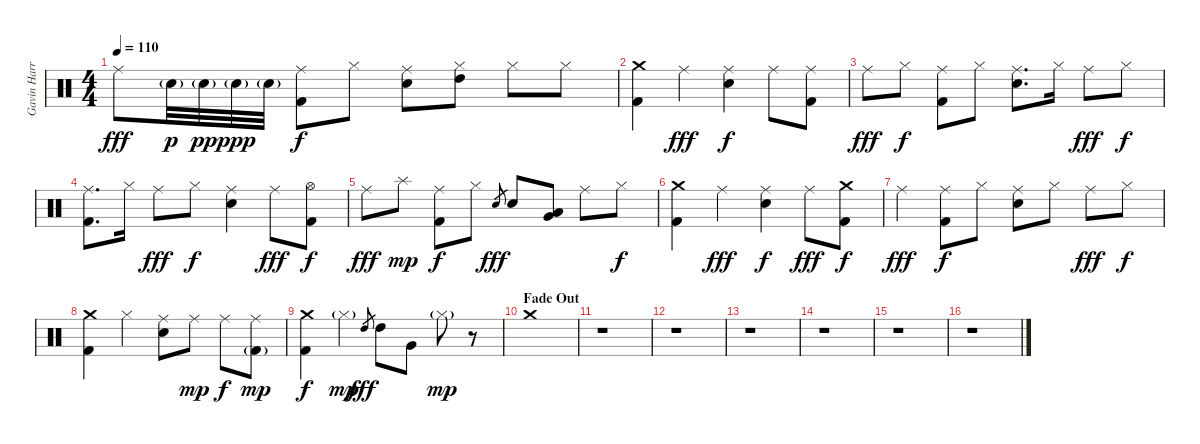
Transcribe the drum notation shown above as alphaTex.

\track ("Gavin Harrison - Drums" "Gavin Harr") {instrument percussion}
\staff {score}
\articulation defaults
\ts (4 4)
\tempo 110
\clef neutral
\ks c "Ride (middle)".8{dy fff} "Electric Snare (hit)"{g}.32{dy p} "Electric Snare (hit)"{g}.32{dy pp} "Electric Snare (hit)"{g}.32{dy ppp} "Electric Snare (hit)"{g}.32
("Ride (middle)" "Kick (hit) 2").8{dy f} "Hi-Hat (closed)".8 ("Ride (middle)" "Electric Snare (hit)").8 ("Hi-Hat (closed)" "High Tom (hit)").8 "Hi-Hat (closed)".8 "Hi-Hat (closed)".8 |
("Crash medium (hit)" "Kick (hit) 2").4 "Ride (middle)".4{dy fff} ("Ride (middle)" "Electric Snare (hit)").4{dy f} "Ride (middle)".8 ("Ride (middle)" "Kick (hit) 2").8 |
"Ride (middle)".8{dy fff} "Hi-Hat (closed)".8{dy f} ("Ride (middle)" "Kick (hit) 2").8 "Hi-Hat (closed)".8 ("Ride (middle)" "Electric Snare (hit)").8{d} "Hi-Hat (closed)".16 "Ride (middle)".8{dy fff} "Hi-Hat (closed)".8{dy f} |
("Ride (middle)" "Kick (hit) 2").8{d} "Hi-Hat (closed)".16 "Ride (middle)".8{dy fff} "Hi-Hat (closed)".8{dy f} ("Ride (middle)" "Electric Snare (hit)").4 "Ride (middle)".8{dy fff} ("Hi-Hat (open)" "Kick (hit) 2").8{dy f} |
"Ride (middle)".8{dy fff} "Splash (hit)".8{dy mp} ("Ride (middle)" "Kick (hit) 2").8{dy f} "Hi-Hat (closed)".8 "Electric Snare (hit)".8{gr dy fff} "Electric Snare (hit)".8 ("Low Tom (hit)" "Very Low Tom (hit)").8{bu 480} "Ride (middle)".8 "Hi-Hat (closed)".8{dy f} |
("Crash medium (hit)" "Kick (hit) 2").4 "Ride (middle)".4{dy fff} ("Ride (middle)" "Electric Snare (hit)").4{dy f} "Ride (middle)".8{dy fff} ("Crash medium (hit)" "Kick (hit) 2").8{dy f} |
"Ride (middle)".4{dy fff} ("Ride (middle)" "Kick (hit) 2").8{dy f} "Hi-Hat (closed)".8 ("Ride (middle)" "Electric Snare (hit)").8 "Hi-Hat (closed)".8 "Ride (middle)".8{dy fff} "Hi-Hat (closed)".8{dy f} |
("Crash medium (hit)" "Kick (hit) 2").4 "Hi-Hat (closed)".4 ("Ride (middle)" "Electric Snare (hit)").8 "Ride (middle)".8{dy mp} "Ride (middle)".8{dy f} ("Ride (middle)" "Kick (hit) 2"{g}).8{dy mp} |
("Crash medium (hit)" "Kick (hit) 2").4{dy f} "Hi-Hat (closed)"{g}.4{dy mp} "High Tom (hit)".8{gr dy fff} "High Tom (hit)".8 "Very Low Tom (hit)".8 "Hi-Hat (closed)"{g}.8{dy mp} r.8 |
\section ("" "Fade Out")
"Crash medium (hit)".1 |
r.1 |
r.1 |
r.1 |
r.1 |
r.1 |
r.1
